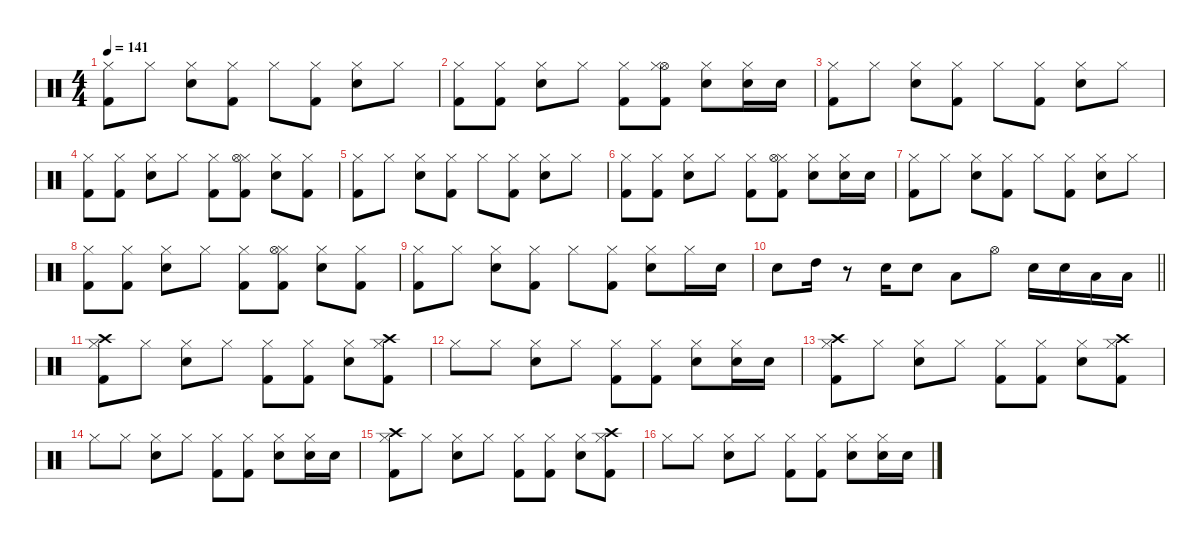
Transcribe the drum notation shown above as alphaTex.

\defaultSystemsLayout 4
\hideDynamics
\bracketExtendMode nobrackets
\singleTrackTrackNamePolicy hidden
\multiTrackTrackNamePolicy hidden
\otherSystemsTrackNameOrientation horizontal
\track ("Drum" "drm.") {instrument percussion}
\staff {score}
\articulation defaults
\ts (4 4)
\tempo 141
\clef neutral
\ks c
("Kick (hit) 2" "Hi-Hat (closed)").8{dy fff beam Down} "Hi-Hat (closed)".8{dy f beam Down} ("Snare (hit) 2" "Hi-Hat (closed)").8{dy fff beam Down} ("Hi-Hat (closed)" "Kick (hit) 2").8{beam Down} "Hi-Hat (closed)".8{beam Down} ("Kick (hit) 2" "Hi-Hat (closed)").8{dy f beam Down} ("Hi-Hat (closed)" "Snare (hit) 2").8{dy fff beam Down} "Hi-Hat (closed)".8{dy f beam Down} |
("Kick (hit) 2" "Hi-Hat (closed)").8{dy fff beam Down} ("Kick (hit) 2" "Hi-Hat (closed)").8{beam Down} ("Snare (hit) 2" "Hi-Hat (closed)").8{beam Down} "Hi-Hat (closed)".8{dy f beam Down} ("Kick (hit) 2" "Hi-Hat (closed)").8{dy fff beam Down} ("Hi-Hat (open)" "Hi-Hat (closed)" "Kick (hit) 2").8{dy f beam Down} ("Snare (hit) 2" "Hi-Hat (closed)").8{dy fff beam Down} ("Snare (hit) 2" "Hi-Hat (closed)").16{beam Down} "Snare (hit) 2".16{beam Down} |
("Hi-Hat (closed)" "Kick (hit) 2").8{beam Down} "Hi-Hat (closed)".8{dy f beam Down} ("Hi-Hat (closed)" "Snare (hit) 2").8{dy fff beam Down} ("Hi-Hat (closed)" "Kick (hit) 2").8{beam Down} "Hi-Hat (closed)".8{beam Down} ("Hi-Hat (closed)" "Kick (hit) 2").8{dy f beam Down} ("Hi-Hat (closed)" "Snare (hit) 2").8{dy fff beam Down} "Hi-Hat (closed)".8{dy f beam Down} |
("Hi-Hat (closed)" "Kick (hit) 2").8{dy fff beam Down} ("Hi-Hat (closed)" "Kick (hit) 2").8{beam Down} ("Hi-Hat (closed)" "Snare (hit) 2").8{beam Down} "Hi-Hat (closed)".8{dy f beam Down} ("Hi-Hat (closed)" "Kick (hit) 2").8{dy fff beam Down} ("Hi-Hat (closed)" "Kick (hit) 2" "Hi-Hat (open)").8{beam Down} ("Hi-Hat (closed)" "Snare (hit) 2").8{beam Down} ("Hi-Hat (closed)" "Kick (hit) 2").8{dy f beam Down} |
("Hi-Hat (closed)" "Kick (hit) 2").8{dy fff beam Down} "Hi-Hat (closed)".8{dy f beam Down} ("Hi-Hat (closed)" "Snare (hit) 2").8{dy fff beam Down} ("Hi-Hat (closed)" "Kick (hit) 2").8{beam Down} "Hi-Hat (closed)".8{beam Down} ("Hi-Hat (closed)" "Kick (hit) 2").8{beam Down} ("Hi-Hat (closed)" "Snare (hit) 2").8{beam Down} "Hi-Hat (closed)".8{dy f beam Down} |
("Kick (hit) 2" "Hi-Hat (closed)").8{dy fff beam Down} ("Kick (hit) 2" "Hi-Hat (closed)").8{beam Down} ("Snare (hit) 2" "Hi-Hat (closed)").8{beam Down} "Hi-Hat (closed)".8{dy f beam Down} ("Kick (hit) 2" "Hi-Hat (closed)").8{dy fff beam Down} ("Kick (hit) 2" "Hi-Hat (closed)" "Hi-Hat (open)").8{beam Down} ("Snare (hit) 2" "Hi-Hat (closed)").8{beam Down} ("Snare (hit) 2" "Hi-Hat (closed)").16{beam Down} "Snare (hit) 2".16{beam Down} |
("Hi-Hat (closed)" "Kick (hit) 2").8{beam Down} "Hi-Hat (closed)".8{dy f beam Down} ("Hi-Hat (closed)" "Snare (hit) 2").8{dy fff beam Down} ("Hi-Hat (closed)" "Kick (hit) 2").8{beam Down} "Hi-Hat (closed)".8{beam Down} ("Hi-Hat (closed)" "Kick (hit) 2").8{dy f beam Down} ("Hi-Hat (closed)" "Snare (hit) 2").8{dy fff beam Down} "Hi-Hat (closed)".8{dy f beam Down} |
("Kick (hit) 2" "Hi-Hat (closed)").8{dy fff beam Down} ("Kick (hit) 2" "Hi-Hat (closed)").8{beam Down} ("Snare (hit) 2" "Hi-Hat (closed)").8{beam Down} "Hi-Hat (closed)".8{dy f beam Down} ("Kick (hit) 2" "Hi-Hat (closed)").8{dy fff beam Down} ("Kick (hit) 2" "Hi-Hat (closed)" "Hi-Hat (open)").8{beam Down} ("Snare (hit) 2" "Hi-Hat (closed)").8{beam Down} ("Kick (hit) 2" "Hi-Hat (closed)").8{beam Down} |
("Hi-Hat (closed)" "Kick (hit) 2").8{beam Down} "Hi-Hat (closed)".8{dy f beam Down} ("Hi-Hat (closed)" "Snare (hit) 2").8{dy fff beam Down} ("Hi-Hat (closed)" "Kick (hit) 2").8{beam Down} "Hi-Hat (closed)".8{beam Down} ("Hi-Hat (closed)" "Kick (hit) 2").8{dy f beam Down} ("Hi-Hat (closed)" "Snare (hit) 2").8{dy fff beam Down} "Hi-Hat (closed)".16{dy f beam Down} "Snare (hit) 2".16{dy mf beam Down} |
\barLineRight lightlight "Snare (hit) 2".8{dy fff beam Down} "High Tom (hit)".16{beam Down}
r.8{beam Down} "Snare (hit) 2".16{dy mf beam Down} "Snare (hit) 2".8{dy fff beam Down} "Low Tom (hit)".8{beam Down} "Hi-Hat (open)".8{beam Down} "Snare (hit) 2".16{beam Down} "Snare (hit) 2".16{beam Down} "Low Tom (hit)".16{beam Down} "Low Floor Tom (hit)".16{beam Down} |
("Hi-Hat (closed)" "Kick (hit) 2" "Crash high (hit)").8{beam Down} "Hi-Hat (closed)".8{dy f beam Down} ("Hi-Hat (closed)" "Snare (hit) 2").8{dy fff beam Down} "Hi-Hat (closed)".8{dy f beam Down} ("Hi-Hat (closed)" "Kick (hit) 2").8{dy fff beam Down} ("Hi-Hat (closed)" "Kick (hit) 2").8{dy f beam Down} ("Hi-Hat (closed)" "Snare (hit) 2").8{dy fff beam Down} ("Hi-Hat (closed)" "Kick (hit) 2" "Crash high (hit)").8{beam Down} |
"Hi-Hat (closed)".8{beam Down} "Hi-Hat (closed)".8{dy f beam Down} ("Hi-Hat (closed)" "Snare (hit) 2").8{dy fff beam Down} "Hi-Hat (closed)".8{dy f beam Down} ("Hi-Hat (closed)" "Kick (hit) 2").8{dy fff beam Down} ("Hi-Hat (closed)" "Kick (hit) 2").8{dy f beam Down} ("Hi-Hat (closed)" "Snare (hit) 2").8{dy fff beam Down} ("Hi-Hat (closed)" "Snare (hit) 2").16{beam Down} "Snare (hit) 2".16{dy f beam Down} |
("Hi-Hat (closed)" "Kick (hit) 2" "Crash high (hit)").8{dy fff beam Down} "Hi-Hat (closed)".8{dy f beam Down} ("Hi-Hat (closed)" "Snare (hit) 2").8{dy fff beam Down} "Hi-Hat (closed)".8{dy f beam Down} ("Hi-Hat (closed)" "Kick (hit) 2").8{dy fff beam Down} ("Hi-Hat (closed)" "Kick (hit) 2").8{beam Down} ("Hi-Hat (closed)" "Snare (hit) 2").8{beam Down} ("Hi-Hat (closed)" "Kick (hit) 2" "Crash high (hit)").8{beam Down} |
"Hi-Hat (closed)".8{dy f beam Down} "Hi-Hat (closed)".8{beam Down} ("Snare (hit) 2" "Hi-Hat (closed)").8{dy fff beam Down} "Hi-Hat (closed)".8{dy f beam Down} ("Kick (hit) 2" "Hi-Hat (closed)").8{dy fff beam Down} ("Kick (hit) 2" "Hi-Hat (closed)").8{beam Down} ("Snare (hit) 2" "Hi-Hat (closed)").8{beam Down} ("Snare (hit) 2" "Hi-Hat (closed)").16{beam Down} "Snare (hit) 2".16{beam Down} |
("Kick (hit) 2" "Hi-Hat (closed)" "Crash high (hit)").8{beam Down} "Hi-Hat (closed)".8{dy f beam Down} ("Snare (hit) 2" "Hi-Hat (closed)").8{dy fff beam Down} "Hi-Hat (closed)".8{dy f beam Down} ("Kick (hit) 2" "Hi-Hat (closed)").8{dy fff beam Down} ("Hi-Hat (closed)" "Kick (hit) 2").8{dy f beam Down} ("Snare (hit) 2" "Hi-Hat (closed)").8{dy fff beam Down} ("Hi-Hat (closed)" "Kick (hit) 2" "Crash high (hit)").8{beam Down} |
"Hi-Hat (closed)".8{beam Down} "Hi-Hat (closed)".8{dy f beam Down} ("Hi-Hat (closed)" "Snare (hit) 2").8{dy fff beam Down} "Hi-Hat (closed)".8{dy f beam Down} ("Hi-Hat (closed)" "Kick (hit) 2").8{dy fff beam Down} ("Hi-Hat (closed)" "Kick (hit) 2").8{beam Down} ("Hi-Hat (closed)" "Snare (hit) 2").8{beam Down} ("Hi-Hat (closed)" "Snare (hit) 2").16{beam Down} "Snare (hit) 2".16{dy f beam Down}
